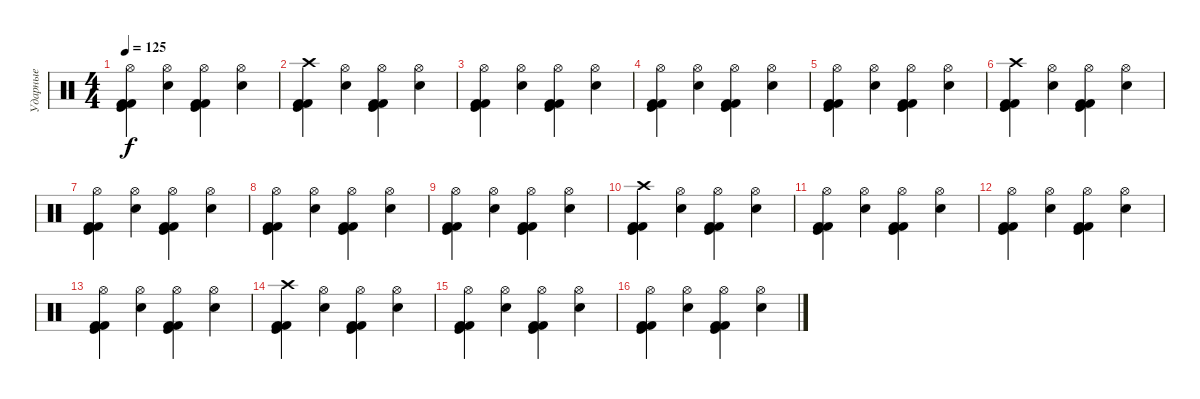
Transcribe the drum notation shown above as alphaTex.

\track ("Ударные" "Ударные") {instrument percussion}
\staff {score}
\articulation defaults
\ts (4 4)
\tempo 125
\clef neutral
\ks c
("Hi-Hat (open)" "Kick (hit) 2" "Kick (hit) 2" "Kick (hit)").4{dy f} ("Hi-Hat (open)" "Electric Snare (hit)").4 ("Hi-Hat (open)" "Kick (hit) 2" "Kick (hit) 2" "Kick (hit)").4 ("Hi-Hat (open)" "Electric Snare (hit)").4 |
("Crash high (hit)" "Kick (hit)" "Kick (hit) 2" "Kick (hit) 2").4 ("Hi-Hat (open)" "Electric Snare (hit)").4 ("Hi-Hat (open)" "Kick (hit)" "Kick (hit) 2" "Kick (hit) 2").4 ("Hi-Hat (open)" "Electric Snare (hit)").4 |
("Hi-Hat (open)" "Kick (hit) 2" "Kick (hit) 2" "Kick (hit)").4 ("Hi-Hat (open)" "Electric Snare (hit)").4 ("Hi-Hat (open)" "Kick (hit) 2" "Kick (hit) 2" "Kick (hit)").4 ("Hi-Hat (open)" "Electric Snare (hit)").4 |
("Hi-Hat (open)" "Kick (hit) 2" "Kick (hit) 2" "Kick (hit)").4 ("Hi-Hat (open)" "Electric Snare (hit)").4 ("Hi-Hat (open)" "Kick (hit) 2" "Kick (hit) 2" "Kick (hit)").4 ("Hi-Hat (open)" "Electric Snare (hit)").4 |
("Hi-Hat (open)" "Kick (hit) 2" "Kick (hit) 2" "Kick (hit)").4 ("Hi-Hat (open)" "Electric Snare (hit)").4 ("Hi-Hat (open)" "Kick (hit) 2" "Kick (hit) 2" "Kick (hit)").4 ("Hi-Hat (open)" "Electric Snare (hit)").4 |
("Crash high (hit)" "Kick (hit)" "Kick (hit) 2" "Kick (hit) 2").4 ("Hi-Hat (open)" "Electric Snare (hit)").4 ("Hi-Hat (open)" "Kick (hit)" "Kick (hit) 2" "Kick (hit) 2").4 ("Hi-Hat (open)" "Electric Snare (hit)").4 |
("Hi-Hat (open)" "Kick (hit) 2" "Kick (hit) 2" "Kick (hit)").4 ("Hi-Hat (open)" "Electric Snare (hit)").4 ("Hi-Hat (open)" "Kick (hit) 2" "Kick (hit) 2" "Kick (hit)").4 ("Hi-Hat (open)" "Electric Snare (hit)").4 |
("Hi-Hat (open)" "Kick (hit) 2" "Kick (hit) 2" "Kick (hit)").4 ("Hi-Hat (open)" "Electric Snare (hit)").4 ("Hi-Hat (open)" "Kick (hit) 2" "Kick (hit) 2" "Kick (hit)").4 ("Hi-Hat (open)" "Electric Snare (hit)").4 |
("Hi-Hat (open)" "Kick (hit) 2" "Kick (hit) 2" "Kick (hit)").4 ("Hi-Hat (open)" "Electric Snare (hit)").4 ("Hi-Hat (open)" "Kick (hit) 2" "Kick (hit) 2" "Kick (hit)").4 ("Hi-Hat (open)" "Electric Snare (hit)").4 |
("Crash high (hit)" "Kick (hit)" "Kick (hit) 2" "Kick (hit) 2").4 ("Hi-Hat (open)" "Electric Snare (hit)").4 ("Hi-Hat (open)" "Kick (hit)" "Kick (hit) 2" "Kick (hit) 2").4 ("Hi-Hat (open)" "Electric Snare (hit)").4 |
("Hi-Hat (open)" "Kick (hit) 2" "Kick (hit) 2" "Kick (hit)").4 ("Hi-Hat (open)" "Electric Snare (hit)").4 ("Hi-Hat (open)" "Kick (hit) 2" "Kick (hit) 2" "Kick (hit)").4 ("Hi-Hat (open)" "Electric Snare (hit)").4 |
("Hi-Hat (open)" "Kick (hit) 2" "Kick (hit) 2" "Kick (hit)").4 ("Hi-Hat (open)" "Electric Snare (hit)").4 ("Hi-Hat (open)" "Kick (hit) 2" "Kick (hit) 2" "Kick (hit)").4 ("Hi-Hat (open)" "Electric Snare (hit)").4 |
("Hi-Hat (open)" "Kick (hit) 2" "Kick (hit) 2" "Kick (hit)").4 ("Hi-Hat (open)" "Electric Snare (hit)").4 ("Hi-Hat (open)" "Kick (hit) 2" "Kick (hit) 2" "Kick (hit)").4 ("Hi-Hat (open)" "Electric Snare (hit)").4 |
("Crash high (hit)" "Kick (hit)" "Kick (hit) 2" "Kick (hit) 2").4 ("Hi-Hat (open)" "Electric Snare (hit)").4 ("Hi-Hat (open)" "Kick (hit)" "Kick (hit) 2" "Kick (hit) 2").4 ("Hi-Hat (open)" "Electric Snare (hit)").4 |
("Hi-Hat (open)" "Kick (hit) 2" "Kick (hit) 2" "Kick (hit)").4 ("Hi-Hat (open)" "Electric Snare (hit)").4 ("Hi-Hat (open)" "Kick (hit) 2" "Kick (hit) 2" "Kick (hit)").4 ("Hi-Hat (open)" "Electric Snare (hit)").4 |
("Hi-Hat (open)" "Kick (hit) 2" "Kick (hit) 2" "Kick (hit)").4 ("Hi-Hat (open)" "Electric Snare (hit)").4 ("Hi-Hat (open)" "Kick (hit) 2" "Kick (hit) 2" "Kick (hit)").4 ("Hi-Hat (open)" "Electric Snare (hit)").4
